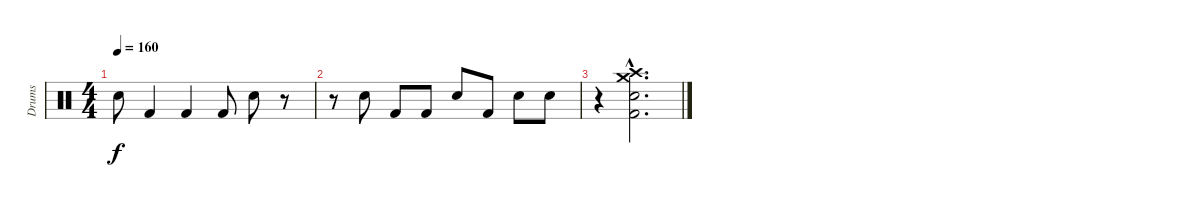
\track ("Drums" "Drums") {instrument percussion}
\staff {score}
\articulation defaults
\ts (4 4)
\tempo 160
\clef neutral
\ks c "Snare (hit) 2".8{dy f} "Kick (hit) 2".4 "Kick (hit) 2".4 "Kick (hit) 2".8 "Snare (hit) 2".8
r.8 |
r.8 "Snare (hit) 2".8 "Kick (hit) 2".8 "Kick (hit) 2".8 "Snare (hit) 2".8 "Kick (hit) 2".8 "Snare (hit) 2".8 "Snare (hit) 2".8 |
r.4 ("Crash medium (hit)"{hac} "Crash high (hit)"{hac} "Snare (hit) 2"{hac} "Kick (hit) 2"{hac}).2{d}
